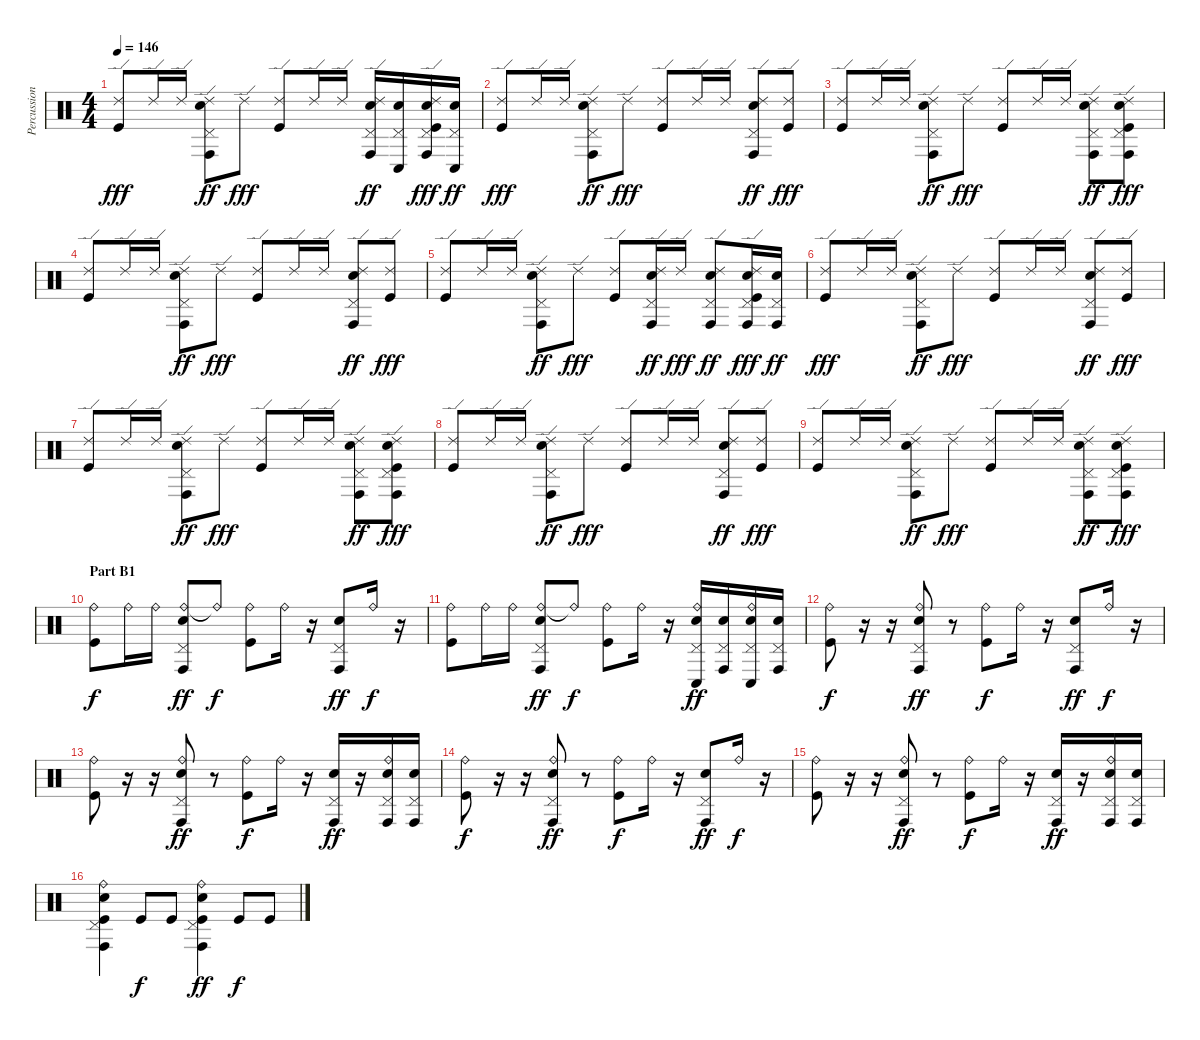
\track ("Percussion" "Percussion") {instrument percussion}
\staff {score}
\articulation defaults
\ts (4 4)
\tempo 146
\clef neutral
\ks c
("Ride (edge) 2" "Kick (hit)").8{dy fff} "Ride (edge) 2".16 "Ride (edge) 2".16 ("Ride (edge) 2" "Pedal Hi-Hat (hit)" "Conga high (hit)" "Electric Snare (hit)").8{dy ff} "Ride (edge) 2".8{dy fff} ("Ride (edge) 2" "Kick (hit)").8 "Ride (edge) 2".16 "Ride (edge) 2".16 ("Ride (edge) 2" "Pedal Hi-Hat (hit)" "Conga high (hit)" "Electric Snare (hit)").16{dy ff} ("Pedal Hi-Hat (hit)" "Conga low (hit)" "Electric Snare (hit)").16 ("Ride (edge) 2" "Pedal Hi-Hat (hit)" "Conga high (hit)" "Electric Snare (hit)" "Kick (hit)").16{dy fff} ("Pedal Hi-Hat (hit)" "Conga low (hit)" "Electric Snare (hit)").16{dy ff} |
("Ride (edge) 2" "Kick (hit)").8{dy fff} "Ride (edge) 2".16 "Ride (edge) 2".16 ("Ride (edge) 2" "Pedal Hi-Hat (hit)" "Conga high (hit)" "Electric Snare (hit)").8{dy ff} "Ride (edge) 2".8{dy fff} ("Ride (edge) 2" "Kick (hit)").8 "Ride (edge) 2".16 "Ride (edge) 2".16 ("Ride (edge) 2" "Pedal Hi-Hat (hit)" "Conga high (hit)" "Electric Snare (hit)").8{dy ff} ("Ride (edge) 2" "Kick (hit)").8{dy fff} |
("Ride (edge) 2" "Kick (hit)").8 "Ride (edge) 2".16 "Ride (edge) 2".16 ("Ride (edge) 2" "Pedal Hi-Hat (hit)" "Conga high (hit)" "Electric Snare (hit)").8{dy ff} "Ride (edge) 2".8{dy fff} ("Ride (edge) 2" "Kick (hit)").8 "Ride (edge) 2".16 "Ride (edge) 2".16 ("Ride (edge) 2" "Pedal Hi-Hat (hit)" "Conga high (hit)" "Electric Snare (hit)").8{dy ff} ("Ride (edge) 2" "Pedal Hi-Hat (hit)" "Conga high (hit)" "Electric Snare (hit)" "Kick (hit)").8{dy fff} |
("Ride (edge) 2" "Kick (hit)").8 "Ride (edge) 2".16 "Ride (edge) 2".16 ("Ride (edge) 2" "Pedal Hi-Hat (hit)" "Conga high (hit)" "Electric Snare (hit)").8{dy ff} "Ride (edge) 2".8{dy fff} ("Ride (edge) 2" "Kick (hit)").8 "Ride (edge) 2".16 "Ride (edge) 2".16 ("Ride (edge) 2" "Pedal Hi-Hat (hit)" "Conga high (hit)" "Electric Snare (hit)").8{dy ff} ("Ride (edge) 2" "Kick (hit)").8{dy fff} |
("Ride (edge) 2" "Kick (hit)").8 "Ride (edge) 2".16 "Ride (edge) 2".16 ("Ride (edge) 2" "Pedal Hi-Hat (hit)" "Conga high (hit)" "Electric Snare (hit)").8{dy ff} "Ride (edge) 2".8{dy fff} ("Ride (edge) 2" "Kick (hit)").8 ("Ride (edge) 2" "Pedal Hi-Hat (hit)" "Conga high (hit)" "Electric Snare (hit)").16{dy ff} "Ride (edge) 2".16{dy fff} ("Ride (edge) 2" "Pedal Hi-Hat (hit)" "Conga high (hit)" "Electric Snare (hit)").8{dy ff} ("Ride (edge) 2" "Pedal Hi-Hat (hit)" "Conga high (hit)" "Electric Snare (hit)" "Kick (hit)").16{dy fff} ("Pedal Hi-Hat (hit)" "Conga high (hit)" "Electric Snare (hit)").16{dy ff} |
("Ride (edge) 2" "Kick (hit)").8{dy fff} "Ride (edge) 2".16 "Ride (edge) 2".16 ("Ride (edge) 2" "Pedal Hi-Hat (hit)" "Conga high (hit)" "Electric Snare (hit)").8{dy ff} "Ride (edge) 2".8{dy fff} ("Ride (edge) 2" "Kick (hit)").8 "Ride (edge) 2".16 "Ride (edge) 2".16 ("Ride (edge) 2" "Pedal Hi-Hat (hit)" "Conga high (hit)" "Electric Snare (hit)").8{dy ff} ("Ride (edge) 2" "Kick (hit)").8{dy fff} |
("Ride (edge) 2" "Kick (hit)").8 "Ride (edge) 2".16 "Ride (edge) 2".16 ("Ride (edge) 2" "Pedal Hi-Hat (hit)" "Conga high (hit)" "Electric Snare (hit)").8{dy ff} "Ride (edge) 2".8{dy fff} ("Ride (edge) 2" "Kick (hit)").8 "Ride (edge) 2".16 "Ride (edge) 2".16 ("Ride (edge) 2" "Pedal Hi-Hat (hit)" "Conga high (hit)" "Electric Snare (hit)").8{dy ff} ("Ride (edge) 2" "Pedal Hi-Hat (hit)" "Conga high (hit)" "Electric Snare (hit)" "Kick (hit)").8{dy fff} |
("Ride (edge) 2" "Kick (hit)").8 "Ride (edge) 2".16 "Ride (edge) 2".16 ("Ride (edge) 2" "Pedal Hi-Hat (hit)" "Conga high (hit)" "Electric Snare (hit)").8{dy ff} "Ride (edge) 2".8{dy fff} ("Ride (edge) 2" "Kick (hit)").8 "Ride (edge) 2".16 "Ride (edge) 2".16 ("Ride (edge) 2" "Pedal Hi-Hat (hit)" "Conga high (hit)" "Electric Snare (hit)").8{dy ff} ("Ride (edge) 2" "Kick (hit)").8{dy fff} |
("Ride (edge) 2" "Kick (hit)").8 "Ride (edge) 2".16 "Ride (edge) 2".16 ("Ride (edge) 2" "Pedal Hi-Hat (hit)" "Conga high (hit)" "Electric Snare (hit)").8{dy ff} "Ride (edge) 2".8{dy fff} ("Ride (edge) 2" "Kick (hit)").8 "Ride (edge) 2".16 "Ride (edge) 2".16 ("Ride (edge) 2" "Pedal Hi-Hat (hit)" "Conga high (hit)" "Electric Snare (hit)").8{dy ff} ("Ride (edge) 2" "Pedal Hi-Hat (hit)" "Conga high (hit)" "Electric Snare (hit)" "Kick (hit)").8{dy fff} |
\section ("" "Part B1")
("Ride (bell)" "Kick (hit)").8{dy f} "Ride (bell)".16 "Ride (bell)".16 ("Ride (bell)" "Pedal Hi-Hat (hit)" "Conga high (hit)" "Electric Snare (hit)").8{dy ff} "Ride (bell)"{t}.8{dy f} ("Ride (bell)" "Kick (hit)").8 "Ride (bell)".16 r.16 ("Pedal Hi-Hat (hit)" "Conga high (hit)" "Electric Snare (hit)").8{dy ff} "Ride (bell)".16{dy f} r.16 |
("Ride (bell)" "Kick (hit)").8 "Ride (bell)".16 "Ride (bell)".16 ("Ride (bell)" "Pedal Hi-Hat (hit)" "Conga high (hit)" "Electric Snare (hit)").8{dy ff} "Ride (bell)"{t}.8{dy f} ("Ride (bell)" "Kick (hit)").8 "Ride (bell)".16 r.16 ("Ride (bell)" "Pedal Hi-Hat (hit)" "Conga low (hit)" "Electric Snare (hit)").16{dy ff} ("Pedal Hi-Hat (hit)" "Conga high (hit)" "Electric Snare (hit)").16 ("Ride (bell)" "Pedal Hi-Hat (hit)" "Conga low (hit)" "Electric Snare (hit)").16 ("Pedal Hi-Hat (hit)" "Conga high (hit)" "Electric Snare (hit)").16 |
("Ride (bell)" "Kick (hit)").8{dy f} r.16 r.16 ("Ride (bell)" "Pedal Hi-Hat (hit)" "Conga high (hit)" "Electric Snare (hit)").8{dy ff} r.8 ("Ride (bell)" "Kick (hit)").8{dy f} "Ride (bell)".16 r.16 ("Pedal Hi-Hat (hit)" "Conga high (hit)" "Electric Snare (hit)").8{dy ff} "Ride (bell)".16{dy f} r.16 |
("Ride (bell)" "Kick (hit)").8 r.16 r.16 ("Ride (bell)" "Pedal Hi-Hat (hit)" "Conga high (hit)" "Electric Snare (hit)").8{dy ff} r.8 ("Ride (bell)" "Kick (hit)").8{dy f} "Ride (bell)".16 r.16 ("Pedal Hi-Hat (hit)" "Conga high (hit)" "Electric Snare (hit)").16{dy ff} r.16 ("Ride (bell)" "Pedal Hi-Hat (hit)" "Conga high (hit)" "Electric Snare (hit)").16 ("Pedal Hi-Hat (hit)" "Conga high (hit)" "Electric Snare (hit)").16 |
("Ride (bell)" "Kick (hit)").8{dy f} r.16 r.16 ("Ride (bell)" "Pedal Hi-Hat (hit)" "Conga high (hit)" "Electric Snare (hit)").8{dy ff} r.8 ("Ride (bell)" "Kick (hit)").8{dy f} "Ride (bell)".16 r.16 ("Pedal Hi-Hat (hit)" "Conga high (hit)" "Electric Snare (hit)").8{dy ff} "Ride (bell)".16{dy f} r.16 |
("Ride (bell)" "Kick (hit)").8 r.16 r.16 ("Ride (bell)" "Pedal Hi-Hat (hit)" "Conga high (hit)" "Electric Snare (hit)").8{dy ff} r.8 ("Ride (bell)" "Kick (hit)").8{dy f} "Ride (bell)".16 r.16 ("Pedal Hi-Hat (hit)" "Conga high (hit)" "Electric Snare (hit)").16{dy ff} r.16 ("Ride (bell)" "Pedal Hi-Hat (hit)" "Conga high (hit)" "Electric Snare (hit)").16 ("Pedal Hi-Hat (hit)" "Conga high (hit)" "Electric Snare (hit)").16 |
("Ride (bell)" "Pedal Hi-Hat (hit)" "Conga high (hit)" "Electric Snare (hit)" "Kick (hit)").4 "Kick (hit)".8{dy f} "Kick (hit)".8 ("Ride (bell)" "Pedal Hi-Hat (hit)" "Conga high (hit)" "Electric Snare (hit)" "Kick (hit)").4{dy ff} "Kick (hit)".8{dy f} "Kick (hit)".8
